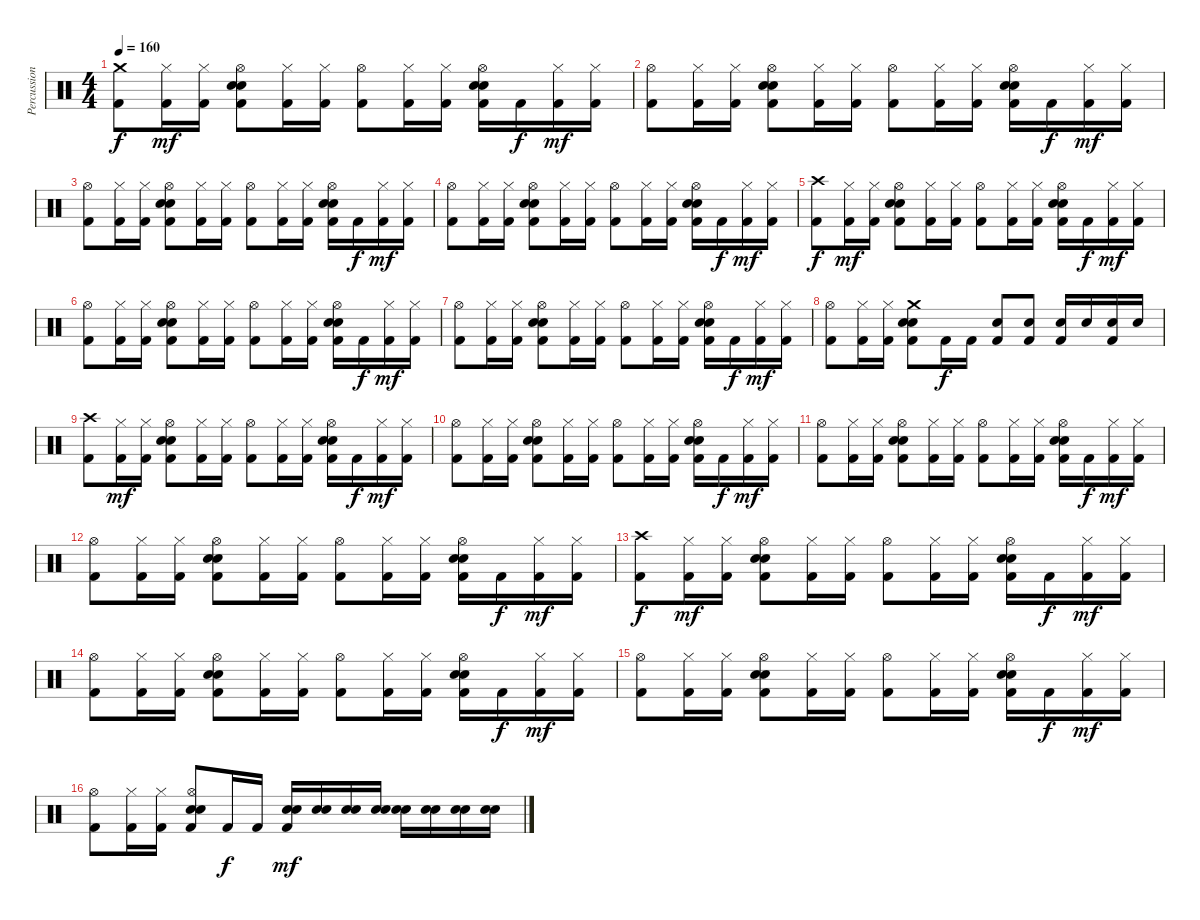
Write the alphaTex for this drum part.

\track ("Percussion" "Percussion") {instrument percussion}
\staff {score}
\articulation defaults
\ts (4 4)
\section ("" "")
\tempo 160
\clef neutral
\ks c
("Crash medium (hit)" "Kick (hit) 2").8{dy f} ("Hi-Hat (closed)" "Kick (hit) 2").16{dy mf} ("Hi-Hat (closed)" "Kick (hit) 2").16 ("Hi-Hat (open)" "Electric Snare (hit)" "Snare (hit) 2" "Kick (hit) 2").8 ("Hi-Hat (closed)" "Kick (hit) 2").16 ("Hi-Hat (closed)" "Kick (hit) 2").16 ("Hi-Hat (open)" "Kick (hit) 2").8 ("Hi-Hat (closed)" "Kick (hit) 2").16 ("Hi-Hat (closed)" "Kick (hit) 2").16 ("Hi-Hat (open)" "Electric Snare (hit)" "Snare (hit) 2" "Kick (hit) 2").16 "Kick (hit) 2".16{dy f} ("Hi-Hat (closed)" "Kick (hit) 2").16{dy mf} ("Hi-Hat (closed)" "Kick (hit) 2").16 |
("Hi-Hat (open)" "Kick (hit) 2").8 ("Hi-Hat (closed)" "Kick (hit) 2").16 ("Hi-Hat (closed)" "Kick (hit) 2").16 ("Hi-Hat (open)" "Electric Snare (hit)" "Snare (hit) 2" "Kick (hit) 2").8 ("Hi-Hat (closed)" "Kick (hit) 2").16 ("Hi-Hat (closed)" "Kick (hit) 2").16 ("Hi-Hat (open)" "Kick (hit) 2").8 ("Hi-Hat (closed)" "Kick (hit) 2").16 ("Hi-Hat (closed)" "Kick (hit) 2").16 ("Hi-Hat (open)" "Electric Snare (hit)" "Snare (hit) 2" "Kick (hit) 2").16 "Kick (hit) 2".16{dy f} ("Hi-Hat (closed)" "Kick (hit) 2").16{dy mf} ("Hi-Hat (closed)" "Kick (hit) 2").16 |
("Hi-Hat (open)" "Kick (hit) 2").8 ("Hi-Hat (closed)" "Kick (hit) 2").16 ("Hi-Hat (closed)" "Kick (hit) 2").16 ("Hi-Hat (open)" "Electric Snare (hit)" "Snare (hit) 2" "Kick (hit) 2").8 ("Hi-Hat (closed)" "Kick (hit) 2").16 ("Hi-Hat (closed)" "Kick (hit) 2").16 ("Hi-Hat (open)" "Kick (hit) 2").8 ("Hi-Hat (closed)" "Kick (hit) 2").16 ("Hi-Hat (closed)" "Kick (hit) 2").16 ("Hi-Hat (open)" "Electric Snare (hit)" "Snare (hit) 2" "Kick (hit) 2").16 "Kick (hit) 2".16{dy f} ("Hi-Hat (closed)" "Kick (hit) 2").16{dy mf} ("Hi-Hat (closed)" "Kick (hit) 2").16 |
("Hi-Hat (open)" "Kick (hit) 2").8 ("Hi-Hat (closed)" "Kick (hit) 2").16 ("Hi-Hat (closed)" "Kick (hit) 2").16 ("Hi-Hat (open)" "Electric Snare (hit)" "Snare (hit) 2" "Kick (hit) 2").8 ("Hi-Hat (closed)" "Kick (hit) 2").16 ("Hi-Hat (closed)" "Kick (hit) 2").16 ("Hi-Hat (open)" "Kick (hit) 2").8 ("Hi-Hat (closed)" "Kick (hit) 2").16 ("Hi-Hat (closed)" "Kick (hit) 2").16 ("Hi-Hat (open)" "Electric Snare (hit)" "Snare (hit) 2" "Kick (hit) 2").16 "Kick (hit) 2".16{dy f} ("Hi-Hat (closed)" "Kick (hit) 2").16{dy mf} ("Hi-Hat (closed)" "Kick (hit) 2").16 |
("Crash high (hit)" "Kick (hit) 2").8{dy f} ("Hi-Hat (closed)" "Kick (hit) 2").16{dy mf} ("Hi-Hat (closed)" "Kick (hit) 2").16 ("Hi-Hat (open)" "Electric Snare (hit)" "Snare (hit) 2" "Kick (hit) 2").8 ("Hi-Hat (closed)" "Kick (hit) 2").16 ("Hi-Hat (closed)" "Kick (hit) 2").16 ("Hi-Hat (open)" "Kick (hit) 2").8 ("Hi-Hat (closed)" "Kick (hit) 2").16 ("Hi-Hat (closed)" "Kick (hit) 2").16 ("Hi-Hat (open)" "Electric Snare (hit)" "Snare (hit) 2" "Kick (hit) 2").16 "Kick (hit) 2".16{dy f} ("Hi-Hat (closed)" "Kick (hit) 2").16{dy mf} ("Hi-Hat (closed)" "Kick (hit) 2").16 |
("Hi-Hat (open)" "Kick (hit) 2").8 ("Hi-Hat (closed)" "Kick (hit) 2").16 ("Hi-Hat (closed)" "Kick (hit) 2").16 ("Hi-Hat (open)" "Electric Snare (hit)" "Snare (hit) 2" "Kick (hit) 2").8 ("Hi-Hat (closed)" "Kick (hit) 2").16 ("Hi-Hat (closed)" "Kick (hit) 2").16 ("Hi-Hat (open)" "Kick (hit) 2").8 ("Hi-Hat (closed)" "Kick (hit) 2").16 ("Hi-Hat (closed)" "Kick (hit) 2").16 ("Hi-Hat (open)" "Electric Snare (hit)" "Snare (hit) 2" "Kick (hit) 2").16 "Kick (hit) 2".16{dy f} ("Hi-Hat (closed)" "Kick (hit) 2").16{dy mf} ("Hi-Hat (closed)" "Kick (hit) 2").16 |
("Hi-Hat (open)" "Kick (hit) 2").8 ("Hi-Hat (closed)" "Kick (hit) 2").16 ("Hi-Hat (closed)" "Kick (hit) 2").16 ("Hi-Hat (open)" "Electric Snare (hit)" "Snare (hit) 2" "Kick (hit) 2").8 ("Hi-Hat (closed)" "Kick (hit) 2").16 ("Hi-Hat (closed)" "Kick (hit) 2").16 ("Hi-Hat (open)" "Kick (hit) 2").8 ("Hi-Hat (closed)" "Kick (hit) 2").16 ("Hi-Hat (closed)" "Kick (hit) 2").16 ("Hi-Hat (open)" "Electric Snare (hit)" "Snare (hit) 2" "Kick (hit) 2").16 "Kick (hit) 2".16{dy f} ("Hi-Hat (closed)" "Kick (hit) 2").16{dy mf} ("Hi-Hat (closed)" "Kick (hit) 2").16 |
("Hi-Hat (open)" "Kick (hit) 2").8 ("Hi-Hat (closed)" "Kick (hit) 2").16 ("Hi-Hat (closed)" "Kick (hit) 2").16 ("Crash medium (hit)" "Electric Snare (hit)" "Snare (hit) 2" "Kick (hit) 2").8 "Kick (hit) 2".16{dy f} "Kick (hit) 2".16 ("Snare (hit) 2" "Kick (hit) 2").8 ("Snare (hit) 2" "Kick (hit) 2").8 ("Snare (hit) 2" "Kick (hit) 2").16 "Snare (hit) 2".16 ("Snare (hit) 2" "Kick (hit) 2").16 "Snare (hit) 2".16 |
("Crash high (hit)" "Kick (hit) 2").8 ("Hi-Hat (closed)" "Kick (hit) 2").16{dy mf} ("Hi-Hat (closed)" "Kick (hit) 2").16 ("Hi-Hat (open)" "Electric Snare (hit)" "Snare (hit) 2" "Kick (hit) 2").8 ("Hi-Hat (closed)" "Kick (hit) 2").16 ("Hi-Hat (closed)" "Kick (hit) 2").16 ("Hi-Hat (open)" "Kick (hit) 2").8 ("Hi-Hat (closed)" "Kick (hit) 2").16 ("Hi-Hat (closed)" "Kick (hit) 2").16 ("Hi-Hat (open)" "Electric Snare (hit)" "Snare (hit) 2" "Kick (hit) 2").16 "Kick (hit) 2".16{dy f} ("Hi-Hat (closed)" "Kick (hit) 2").16{dy mf} ("Hi-Hat (closed)" "Kick (hit) 2").16 |
("Hi-Hat (open)" "Kick (hit) 2").8 ("Hi-Hat (closed)" "Kick (hit) 2").16 ("Hi-Hat (closed)" "Kick (hit) 2").16 ("Hi-Hat (open)" "Electric Snare (hit)" "Snare (hit) 2" "Kick (hit) 2").8 ("Hi-Hat (closed)" "Kick (hit) 2").16 ("Hi-Hat (closed)" "Kick (hit) 2").16 ("Hi-Hat (open)" "Kick (hit) 2").8 ("Hi-Hat (closed)" "Kick (hit) 2").16 ("Hi-Hat (closed)" "Kick (hit) 2").16 ("Hi-Hat (open)" "Electric Snare (hit)" "Snare (hit) 2" "Kick (hit) 2").16 "Kick (hit) 2".16{dy f} ("Hi-Hat (closed)" "Kick (hit) 2").16{dy mf} ("Hi-Hat (closed)" "Kick (hit) 2").16 |
("Hi-Hat (open)" "Kick (hit) 2").8 ("Hi-Hat (closed)" "Kick (hit) 2").16 ("Hi-Hat (closed)" "Kick (hit) 2").16 ("Hi-Hat (open)" "Electric Snare (hit)" "Snare (hit) 2" "Kick (hit) 2").8 ("Hi-Hat (closed)" "Kick (hit) 2").16 ("Hi-Hat (closed)" "Kick (hit) 2").16 ("Hi-Hat (open)" "Kick (hit) 2").8 ("Hi-Hat (closed)" "Kick (hit) 2").16 ("Hi-Hat (closed)" "Kick (hit) 2").16 ("Hi-Hat (open)" "Electric Snare (hit)" "Snare (hit) 2" "Kick (hit) 2").16 "Kick (hit) 2".16{dy f} ("Hi-Hat (closed)" "Kick (hit) 2").16{dy mf} ("Hi-Hat (closed)" "Kick (hit) 2").16 |
("Hi-Hat (open)" "Kick (hit) 2").8 ("Hi-Hat (closed)" "Kick (hit) 2").16 ("Hi-Hat (closed)" "Kick (hit) 2").16 ("Hi-Hat (open)" "Electric Snare (hit)" "Snare (hit) 2" "Kick (hit) 2").8 ("Hi-Hat (closed)" "Kick (hit) 2").16 ("Hi-Hat (closed)" "Kick (hit) 2").16 ("Hi-Hat (open)" "Kick (hit) 2").8 ("Hi-Hat (closed)" "Kick (hit) 2").16 ("Hi-Hat (closed)" "Kick (hit) 2").16 ("Hi-Hat (open)" "Electric Snare (hit)" "Snare (hit) 2" "Kick (hit) 2").16 "Kick (hit) 2".16{dy f} ("Hi-Hat (closed)" "Kick (hit) 2").16{dy mf} ("Hi-Hat (closed)" "Kick (hit) 2").16 |
("Crash high (hit)" "Kick (hit) 2").8{dy f} ("Hi-Hat (closed)" "Kick (hit) 2").16{dy mf} ("Hi-Hat (closed)" "Kick (hit) 2").16 ("Hi-Hat (open)" "Electric Snare (hit)" "Snare (hit) 2" "Kick (hit) 2").8 ("Hi-Hat (closed)" "Kick (hit) 2").16 ("Hi-Hat (closed)" "Kick (hit) 2").16 ("Hi-Hat (open)" "Kick (hit) 2").8 ("Hi-Hat (closed)" "Kick (hit) 2").16 ("Hi-Hat (closed)" "Kick (hit) 2").16 ("Hi-Hat (open)" "Electric Snare (hit)" "Snare (hit) 2" "Kick (hit) 2").16 "Kick (hit) 2".16{dy f} ("Hi-Hat (closed)" "Kick (hit) 2").16{dy mf} ("Hi-Hat (closed)" "Kick (hit) 2").16 |
("Hi-Hat (open)" "Kick (hit) 2").8 ("Hi-Hat (closed)" "Kick (hit) 2").16 ("Hi-Hat (closed)" "Kick (hit) 2").16 ("Hi-Hat (open)" "Electric Snare (hit)" "Snare (hit) 2" "Kick (hit) 2").8 ("Hi-Hat (closed)" "Kick (hit) 2").16 ("Hi-Hat (closed)" "Kick (hit) 2").16 ("Hi-Hat (open)" "Kick (hit) 2").8 ("Hi-Hat (closed)" "Kick (hit) 2").16 ("Hi-Hat (closed)" "Kick (hit) 2").16 ("Hi-Hat (open)" "Electric Snare (hit)" "Snare (hit) 2" "Kick (hit) 2").16 "Kick (hit) 2".16{dy f} ("Hi-Hat (closed)" "Kick (hit) 2").16{dy mf} ("Hi-Hat (closed)" "Kick (hit) 2").16 |
("Hi-Hat (open)" "Kick (hit) 2").8 ("Hi-Hat (closed)" "Kick (hit) 2").16 ("Hi-Hat (closed)" "Kick (hit) 2").16 ("Hi-Hat (open)" "Electric Snare (hit)" "Snare (hit) 2" "Kick (hit) 2").8 ("Hi-Hat (closed)" "Kick (hit) 2").16 ("Hi-Hat (closed)" "Kick (hit) 2").16 ("Hi-Hat (open)" "Kick (hit) 2").8 ("Hi-Hat (closed)" "Kick (hit) 2").16 ("Hi-Hat (closed)" "Kick (hit) 2").16 ("Hi-Hat (open)" "Electric Snare (hit)" "Snare (hit) 2" "Kick (hit) 2").16 "Kick (hit) 2".16{dy f} ("Hi-Hat (closed)" "Kick (hit) 2").16{dy mf} ("Hi-Hat (closed)" "Kick (hit) 2").16 |
("Hi-Hat (open)" "Kick (hit) 2").8 ("Hi-Hat (closed)" "Kick (hit) 2").16 ("Hi-Hat (closed)" "Kick (hit) 2").16 ("Hi-Hat (open)" "Electric Snare (hit)" "Snare (hit) 2" "Kick (hit) 2").8 "Kick (hit) 2".16{dy f} "Kick (hit) 2".16 ("Electric Snare (hit)" "Snare (hit) 2" "Kick (hit) 2").16{dy mf} ("Electric Snare (hit)" "Snare (hit) 2").16 ("Electric Snare (hit)" "Snare (hit) 2").16 ("Electric Snare (hit)" "Snare (hit) 2").16 ("Electric Snare (hit)" "Snare (hit) 2").16 ("Electric Snare (hit)" "Snare (hit) 2").16 ("Electric Snare (hit)" "Snare (hit) 2").16 ("Electric Snare (hit)" "Snare (hit) 2").16
